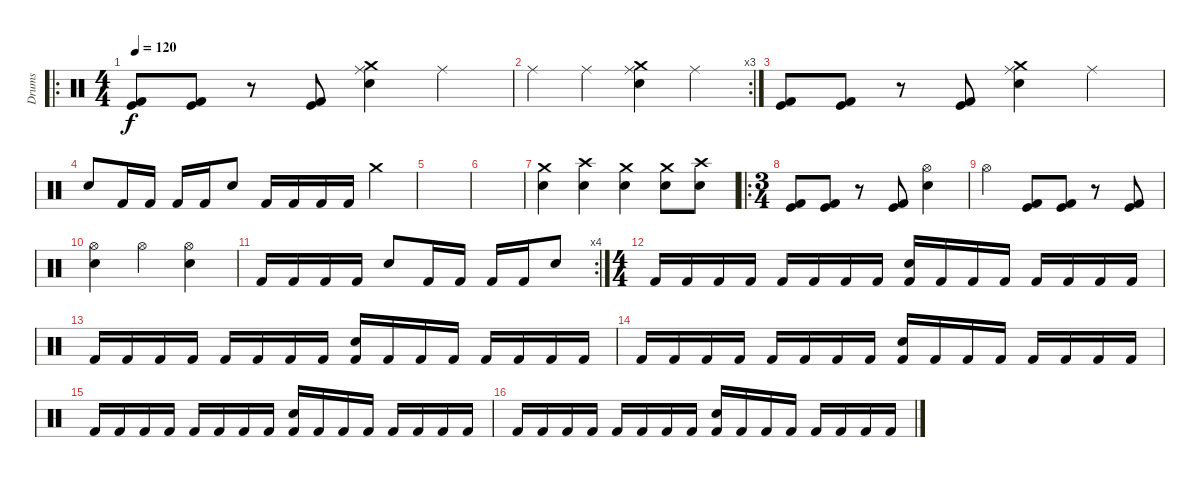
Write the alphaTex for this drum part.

\track ("Drums" "Drums") {instrument percussion}
\staff {score}
\articulation defaults
\ro
\ts (4 4)
\tempo 120
\clef neutral
\ks c
("Kick (hit)" "Kick (hit) 2").8{dy f} ("Kick (hit)" "Kick (hit) 2").8 r.8 ("Kick (hit)" "Kick (hit) 2").8 ("Ride (middle)" "Crash medium (hit)" "Electric Snare (hit)").4 "Ride (middle)".4 |
\rc 3 "Ride (middle)".4 "Ride (middle)".4
("Ride (middle)" "Crash medium (hit)" "Electric Snare (hit)").4 "Ride (middle)".4 |
("Kick (hit)" "Kick (hit) 2").8 ("Kick (hit)" "Kick (hit) 2").8 r.8 ("Kick (hit)" "Kick (hit) 2").8 ("Ride (middle)" "Crash medium (hit)" "Electric Snare (hit)").4 "Ride (middle)".4 |
"Electric Snare (hit)".8 "Kick (hit) 2".16 "Kick (hit) 2".16 "Kick (hit) 2".16 "Kick (hit) 2".16 "Electric Snare (hit)".8 "Kick (hit) 2".16 "Kick (hit) 2".16 "Kick (hit) 2".16 "Kick (hit) 2".16 "Crash medium (hit)".4 |
|
|
("Crash medium (hit)" "Electric Snare (hit)").4 ("Crash high (hit)" "Electric Snare (hit)").4 ("Crash medium (hit)" "Electric Snare (hit)").4 ("Crash medium (hit)" "Electric Snare (hit)").8 ("Crash high (hit)" "Electric Snare (hit)").8 |
\ro
\ts (3 4)
("Kick (hit)" "Kick (hit) 2").8 ("Kick (hit)" "Kick (hit) 2").8 r.8 ("Kick (hit)" "Kick (hit) 2").8 ("Hi-Hat (open)" "Electric Snare (hit)").4 |
"Hi-Hat (open)".4 ("Kick (hit)" "Kick (hit) 2").8 ("Kick (hit)" "Kick (hit) 2").8 r.8 ("Kick (hit)" "Kick (hit) 2").8 |
("Hi-Hat (open)" "Electric Snare (hit)").4 "Hi-Hat (open)".4 ("Hi-Hat (open)" "Electric Snare (hit)").4 |
\rc 4 "Kick (hit) 2".16 "Kick (hit) 2".16 "Kick (hit) 2".16 "Kick (hit) 2".16 "Electric Snare (hit)".8 "Kick (hit) 2".16 "Kick (hit) 2".16 "Kick (hit) 2".16 "Kick (hit) 2".16 "Electric Snare (hit)".8
|
\ts (4 4)
"Kick (hit) 2".16 "Kick (hit) 2".16 "Kick (hit) 2".16 "Kick (hit) 2".16 "Kick (hit) 2".16 "Kick (hit) 2".16 "Kick (hit) 2".16 "Kick (hit) 2".16 ("Electric Snare (hit)" "Kick (hit) 2").16 "Kick (hit) 2".16 "Kick (hit) 2".16 "Kick (hit) 2".16 "Kick (hit) 2".16 "Kick (hit) 2".16 "Kick (hit) 2".16 "Kick (hit) 2".16 |
"Kick (hit) 2".16 "Kick (hit) 2".16 "Kick (hit) 2".16 "Kick (hit) 2".16 "Kick (hit) 2".16 "Kick (hit) 2".16 "Kick (hit) 2".16 "Kick (hit) 2".16 ("Electric Snare (hit)" "Kick (hit) 2").16 "Kick (hit) 2".16 "Kick (hit) 2".16 "Kick (hit) 2".16 "Kick (hit) 2".16 "Kick (hit) 2".16 "Kick (hit) 2".16 "Kick (hit) 2".16 |
"Kick (hit) 2".16 "Kick (hit) 2".16 "Kick (hit) 2".16 "Kick (hit) 2".16 "Kick (hit) 2".16 "Kick (hit) 2".16 "Kick (hit) 2".16 "Kick (hit) 2".16 ("Electric Snare (hit)" "Kick (hit) 2").16 "Kick (hit) 2".16 "Kick (hit) 2".16 "Kick (hit) 2".16 "Kick (hit) 2".16 "Kick (hit) 2".16 "Kick (hit) 2".16 "Kick (hit) 2".16 |
"Kick (hit) 2".16 "Kick (hit) 2".16 "Kick (hit) 2".16 "Kick (hit) 2".16 "Kick (hit) 2".16 "Kick (hit) 2".16 "Kick (hit) 2".16 "Kick (hit) 2".16 ("Electric Snare (hit)" "Kick (hit) 2").16 "Kick (hit) 2".16 "Kick (hit) 2".16 "Kick (hit) 2".16 "Kick (hit) 2".16 "Kick (hit) 2".16 "Kick (hit) 2".16 "Kick (hit) 2".16 |
"Kick (hit) 2".16 "Kick (hit) 2".16 "Kick (hit) 2".16 "Kick (hit) 2".16 "Kick (hit) 2".16 "Kick (hit) 2".16 "Kick (hit) 2".16 "Kick (hit) 2".16 ("Electric Snare (hit)" "Kick (hit) 2").16 "Kick (hit) 2".16 "Kick (hit) 2".16 "Kick (hit) 2".16 "Kick (hit) 2".16 "Kick (hit) 2".16 "Kick (hit) 2".16 "Kick (hit) 2".16
